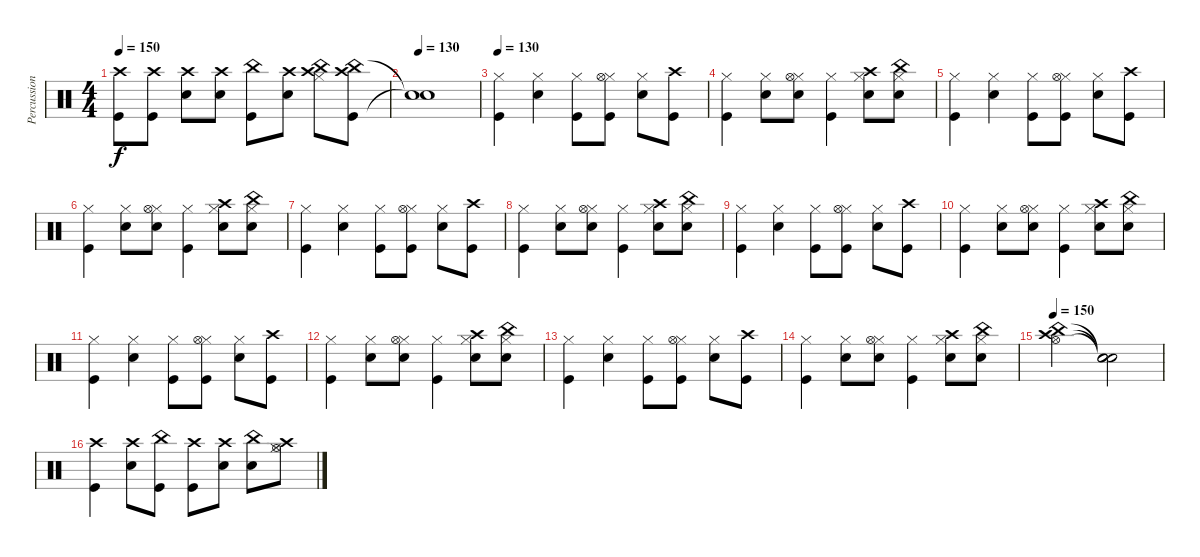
\track ("Percussion" "Percussion") {instrument percussion}
\staff {score}
\articulation defaults
\ts (4 4)
\tempo 150
\clef neutral
\ks c
("Kick (hit)" "Crash high (hit)").8{dy f} ("Kick (hit)" "Crash high (hit)").8 ("Snare (hit) 2" "Crash high (hit)").8 ("Snare (hit) 2" "Crash high (hit)").8 ("Kick (hit)" "China (hit)").8 ("Snare (hit) 2" "Crash high (hit)").8 ("Hi-Hat (closed)" "Crash high (hit)" "China (hit)").8 ("Kick (hit)" "China (hit)" "Crash high (hit)").8 |
\tempo 130
("Snare (hit)"{t} "Snare (hit)"{t}).1 |
\tempo 130
("Kick (hit)" "Hi-Hat (closed)").4 ("Snare (hit) 2" "Hi-Hat (closed)").4 ("Kick (hit)" "Hi-Hat (closed)").8 ("Kick (hit)" "Hi-Hat (closed)" "Hi-Hat (open)").8 ("Snare (hit) 2" "Hi-Hat (closed)").8 ("Kick (hit)" "Crash high (hit)").8 |
("Kick (hit)" "Hi-Hat (closed)").4 ("Snare (hit) 2" "Hi-Hat (closed)").8 ("Snare (hit) 2" "Hi-Hat (closed)" "Hi-Hat (open)").8 ("Kick (hit)" "Hi-Hat (closed)").4 ("Snare (hit) 2" "Hi-Hat (closed)" "Crash high (hit)").8 ("Snare (hit) 2" "Hi-Hat (closed)" "China (hit)").8 |
("Kick (hit)" "Hi-Hat (closed)").4 ("Snare (hit) 2" "Hi-Hat (closed)").4 ("Kick (hit)" "Hi-Hat (closed)").8 ("Kick (hit)" "Hi-Hat (closed)" "Hi-Hat (open)").8 ("Snare (hit) 2" "Hi-Hat (closed)").8 ("Kick (hit)" "Crash high (hit)").8 |
("Kick (hit)" "Hi-Hat (closed)").4 ("Snare (hit) 2" "Hi-Hat (closed)").8 ("Snare (hit) 2" "Hi-Hat (closed)" "Hi-Hat (open)").8 ("Kick (hit)" "Hi-Hat (closed)").4 ("Snare (hit) 2" "Hi-Hat (closed)" "Crash high (hit)").8 ("Snare (hit) 2" "Hi-Hat (closed)" "China (hit)").8 |
("Kick (hit)" "Hi-Hat (closed)").4 ("Snare (hit) 2" "Hi-Hat (closed)").4 ("Kick (hit)" "Hi-Hat (closed)").8 ("Kick (hit)" "Hi-Hat (closed)" "Hi-Hat (open)").8 ("Snare (hit) 2" "Hi-Hat (closed)").8 ("Kick (hit)" "Crash high (hit)").8 |
("Kick (hit)" "Hi-Hat (closed)").4 ("Snare (hit) 2" "Hi-Hat (closed)").8 ("Snare (hit) 2" "Hi-Hat (closed)" "Hi-Hat (open)").8 ("Kick (hit)" "Hi-Hat (closed)").4 ("Snare (hit) 2" "Hi-Hat (closed)" "Crash high (hit)").8 ("Snare (hit) 2" "Hi-Hat (closed)" "China (hit)").8 |
("Kick (hit)" "Hi-Hat (closed)").4 ("Snare (hit) 2" "Hi-Hat (closed)").4 ("Kick (hit)" "Hi-Hat (closed)").8 ("Kick (hit)" "Hi-Hat (closed)" "Hi-Hat (open)").8 ("Snare (hit) 2" "Hi-Hat (closed)").8 ("Kick (hit)" "Crash high (hit)").8 |
("Kick (hit)" "Hi-Hat (closed)").4 ("Snare (hit) 2" "Hi-Hat (closed)").8 ("Snare (hit) 2" "Hi-Hat (closed)" "Hi-Hat (open)").8 ("Kick (hit)" "Hi-Hat (closed)").4 ("Snare (hit) 2" "Hi-Hat (closed)" "Crash high (hit)").8 ("Snare (hit) 2" "Hi-Hat (closed)" "China (hit)").8 |
("Kick (hit)" "Hi-Hat (closed)").4 ("Snare (hit) 2" "Hi-Hat (closed)").4 ("Kick (hit)" "Hi-Hat (closed)").8 ("Kick (hit)" "Hi-Hat (closed)" "Hi-Hat (open)").8 ("Snare (hit) 2" "Hi-Hat (closed)").8 ("Kick (hit)" "Crash high (hit)").8 |
("Kick (hit)" "Hi-Hat (closed)").4 ("Snare (hit) 2" "Hi-Hat (closed)").8 ("Snare (hit) 2" "Hi-Hat (closed)" "Hi-Hat (open)").8 ("Kick (hit)" "Hi-Hat (closed)").4 ("Snare (hit) 2" "Hi-Hat (closed)" "Crash high (hit)").8 ("Snare (hit) 2" "Hi-Hat (closed)" "China (hit)").8 |
("Kick (hit)" "Hi-Hat (closed)").4 ("Snare (hit) 2" "Hi-Hat (closed)").4 ("Kick (hit)" "Hi-Hat (closed)").8 ("Kick (hit)" "Hi-Hat (closed)" "Hi-Hat (open)").8 ("Snare (hit) 2" "Hi-Hat (closed)").8 ("Kick (hit)" "Crash high (hit)").8 |
("Kick (hit)" "Hi-Hat (closed)").4 ("Snare (hit) 2" "Hi-Hat (closed)").8 ("Snare (hit) 2" "Hi-Hat (closed)" "Hi-Hat (open)").8 ("Kick (hit)" "Hi-Hat (closed)").4 ("Snare (hit) 2" "Hi-Hat (closed)" "Crash high (hit)").8 ("Snare (hit) 2" "Hi-Hat (closed)" "China (hit)").8 |
\tempo 150
("Hi-Hat (open)" "Crash high (hit)" "China (hit)").2 ("Snare (hit)"{t} "Snare (hit)"{t} "Snare (hit)"{t}).2 |
("Kick (hit)" "Crash high (hit)").4 ("Snare (hit) 2" "Crash high (hit)").8 ("Kick (hit)" "China (hit)").8 ("Kick (hit)" "Crash high (hit)").8 ("Snare (hit) 2" "Crash high (hit)").8 ("Snare (hit) 2" "China (hit)").8 ("Hi-Hat (closed)" "Hi-Hat (open)" "Crash high (hit)").8
